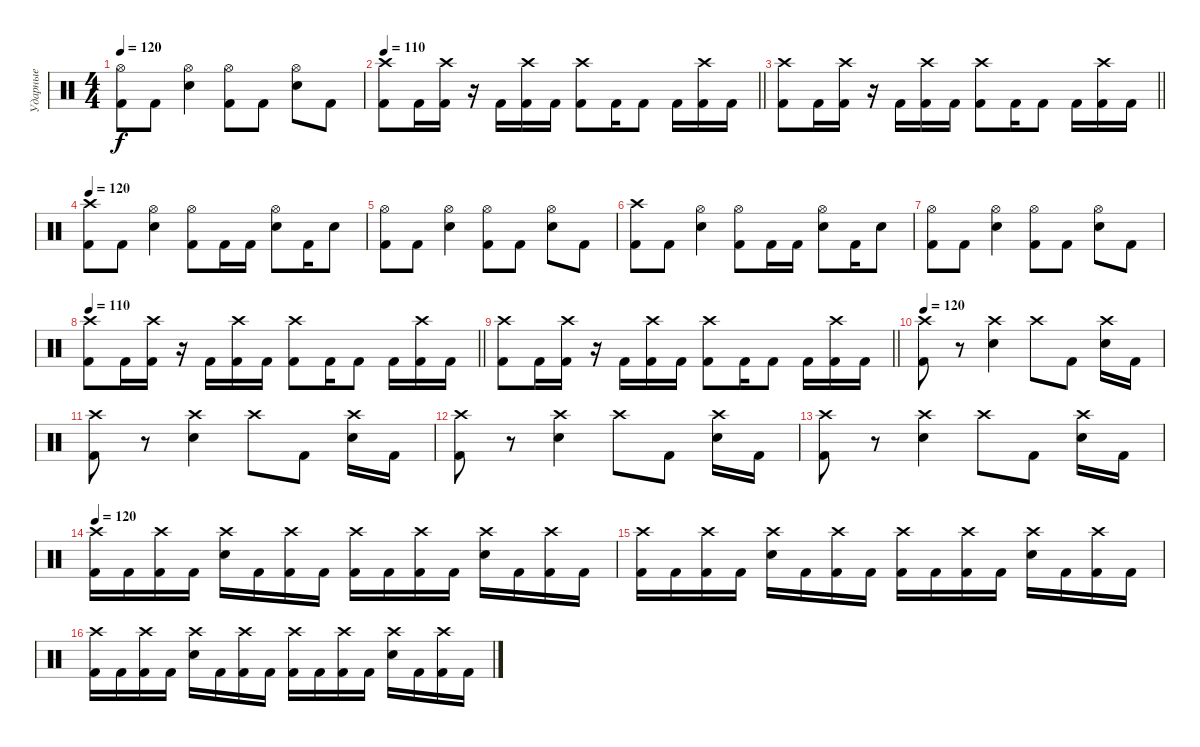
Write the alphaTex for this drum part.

\track ("Ударные" "Ударные") {instrument percussion}
\staff {score}
\articulation defaults
\ts (4 4)
\tempo 120
\clef neutral
\ks c
("Hi-Hat (open)" "Kick (hit) 2").8{dy f} "Kick (hit) 2".8 ("Hi-Hat (open)" "Electric Snare (hit)").4 ("Hi-Hat (open)" "Kick (hit) 2").8 "Kick (hit) 2".8 ("Hi-Hat (open)" "Electric Snare (hit)").8 "Kick (hit) 2".8 |
\tempo 110
\barLineRight lightlight
("Kick (hit) 2" "Crash high (hit)").8 "Kick (hit) 2".16 ("Kick (hit) 2" "Crash high (hit)").16 r.16 "Kick (hit) 2".16 ("Kick (hit) 2" "Crash high (hit)").16 "Kick (hit) 2".16 ("Kick (hit) 2" "Crash high (hit)").8 "Kick (hit) 2".16 "Kick (hit) 2".8 "Kick (hit) 2".16 ("Kick (hit) 2" "Crash high (hit)").16 "Kick (hit) 2".16 |
\barLineRight lightlight
("Kick (hit) 2" "Crash high (hit)").8 "Kick (hit) 2".16 ("Kick (hit) 2" "Crash high (hit)").16 r.16 "Kick (hit) 2".16 ("Kick (hit) 2" "Crash high (hit)").16 "Kick (hit) 2".16 ("Kick (hit) 2" "Crash high (hit)").8 "Kick (hit) 2".16 "Kick (hit) 2".8 "Kick (hit) 2".16 ("Kick (hit) 2" "Crash high (hit)").16 "Kick (hit) 2".16 |
\tempo 120
("Crash high (hit)" "Kick (hit) 2").8 "Kick (hit) 2".8 ("Hi-Hat (open)" "Electric Snare (hit)").4 ("Hi-Hat (open)" "Kick (hit) 2").8 "Kick (hit) 2".16 "Kick (hit) 2".16 ("Hi-Hat (open)" "Electric Snare (hit)").8 "Kick (hit) 2".16 "Electric Snare (hit)".8 |
("Hi-Hat (open)" "Kick (hit) 2").8 "Kick (hit) 2".8 ("Hi-Hat (open)" "Electric Snare (hit)").4 ("Hi-Hat (open)" "Kick (hit) 2").8 "Kick (hit) 2".8 ("Hi-Hat (open)" "Electric Snare (hit)").8 "Kick (hit) 2".8 |
("Crash high (hit)" "Kick (hit) 2").8 "Kick (hit) 2".8 ("Hi-Hat (open)" "Electric Snare (hit)").4 ("Hi-Hat (open)" "Kick (hit) 2").8 "Kick (hit) 2".16 "Kick (hit) 2".16 ("Hi-Hat (open)" "Electric Snare (hit)").8 "Kick (hit) 2".16 "Electric Snare (hit)".8 |
("Hi-Hat (open)" "Kick (hit) 2").8 "Kick (hit) 2".8 ("Hi-Hat (open)" "Electric Snare (hit)").4 ("Hi-Hat (open)" "Kick (hit) 2").8 "Kick (hit) 2".8 ("Hi-Hat (open)" "Electric Snare (hit)").8 "Kick (hit) 2".8 |
\tempo 110
\barLineRight lightlight
("Kick (hit) 2" "Crash high (hit)").8 "Kick (hit) 2".16 ("Kick (hit) 2" "Crash high (hit)").16 r.16 "Kick (hit) 2".16 ("Kick (hit) 2" "Crash high (hit)").16 "Kick (hit) 2".16 ("Kick (hit) 2" "Crash high (hit)").8 "Kick (hit) 2".16 "Kick (hit) 2".8 "Kick (hit) 2".16 ("Kick (hit) 2" "Crash high (hit)").16 "Kick (hit) 2".16 |
\barLineRight lightlight
("Kick (hit) 2" "Crash high (hit)").8 "Kick (hit) 2".16 ("Kick (hit) 2" "Crash high (hit)").16 r.16 "Kick (hit) 2".16 ("Kick (hit) 2" "Crash high (hit)").16 "Kick (hit) 2".16 ("Kick (hit) 2" "Crash high (hit)").8 "Kick (hit) 2".16 "Kick (hit) 2".8 "Kick (hit) 2".16 ("Kick (hit) 2" "Crash high (hit)").16 "Kick (hit) 2".16 |
\tempo 120
("Crash high (hit)" "Kick (hit) 2").8 r.8 ("Crash high (hit)" "Electric Snare (hit)").4 "Crash high (hit)".8 "Kick (hit) 2".8 ("Crash high (hit)" "Electric Snare (hit)").16 "Kick (hit) 2".16 |
("Crash high (hit)" "Kick (hit) 2").8 r.8 ("Crash high (hit)" "Electric Snare (hit)").4 "Crash high (hit)".8 "Kick (hit) 2".8 ("Crash high (hit)" "Electric Snare (hit)").16 "Kick (hit) 2".16 |
("Crash high (hit)" "Kick (hit) 2").8 r.8 ("Crash high (hit)" "Electric Snare (hit)").4 "Crash high (hit)".8 "Kick (hit) 2".8 ("Crash high (hit)" "Electric Snare (hit)").16 "Kick (hit) 2".16 |
("Crash high (hit)" "Kick (hit) 2").8 r.8 ("Crash high (hit)" "Electric Snare (hit)").4 "Crash high (hit)".8 "Kick (hit) 2".8 ("Crash high (hit)" "Electric Snare (hit)").16 "Kick (hit) 2".16 |
\tempo 120
("Crash high (hit)" "Kick (hit) 2").16 "Kick (hit) 2".16 ("Crash high (hit)" "Kick (hit) 2").16 "Kick (hit) 2".16 ("Crash high (hit)" "Electric Snare (hit)").16 "Kick (hit) 2".16 ("Crash high (hit)" "Kick (hit) 2").16 "Kick (hit) 2".16 ("Crash high (hit)" "Kick (hit) 2").16 "Kick (hit) 2".16 ("Crash high (hit)" "Kick (hit) 2").16 "Kick (hit) 2".16 ("Crash high (hit)" "Electric Snare (hit)").16 "Kick (hit) 2".16 ("Crash high (hit)" "Kick (hit) 2").16 "Kick (hit) 2".16 |
("Crash high (hit)" "Kick (hit) 2").16 "Kick (hit) 2".16 ("Crash high (hit)" "Kick (hit) 2").16 "Kick (hit) 2".16 ("Crash high (hit)" "Electric Snare (hit)").16 "Kick (hit) 2".16 ("Crash high (hit)" "Kick (hit) 2").16 "Kick (hit) 2".16 ("Crash high (hit)" "Kick (hit) 2").16 "Kick (hit) 2".16 ("Crash high (hit)" "Kick (hit) 2").16 "Kick (hit) 2".16 ("Crash high (hit)" "Electric Snare (hit)").16 "Kick (hit) 2".16 ("Crash high (hit)" "Kick (hit) 2").16 "Kick (hit) 2".16 |
("Crash high (hit)" "Kick (hit) 2").16 "Kick (hit) 2".16 ("Crash high (hit)" "Kick (hit) 2").16 "Kick (hit) 2".16 ("Crash high (hit)" "Electric Snare (hit)").16 "Kick (hit) 2".16 ("Crash high (hit)" "Kick (hit) 2").16 "Kick (hit) 2".16 ("Crash high (hit)" "Kick (hit) 2").16 "Kick (hit) 2".16 ("Crash high (hit)" "Kick (hit) 2").16 "Kick (hit) 2".16 ("Crash high (hit)" "Electric Snare (hit)").16 "Kick (hit) 2".16 ("Crash high (hit)" "Kick (hit) 2").16 "Kick (hit) 2".16
